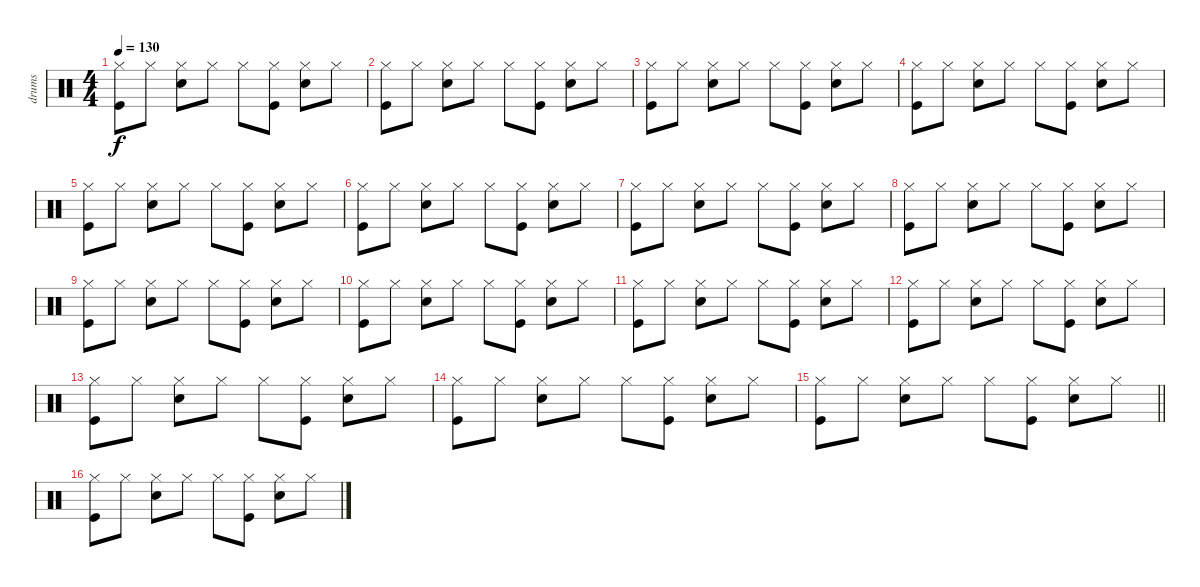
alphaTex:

\track ("drums" "drums") {instrument percussion}
\staff {score}
\articulation defaults
\ts (4 4)
\tempo 130
\clef neutral
\ks c
("Hi-Hat (closed)" "Kick (hit)").8{dy f} "Hi-Hat (closed)".8 ("Hi-Hat (closed)" "Snare (hit) 2").8 "Hi-Hat (closed)".8 "Hi-Hat (closed)".8 ("Hi-Hat (closed)" "Kick (hit)").8 ("Hi-Hat (closed)" "Snare (hit) 2").8 "Hi-Hat (closed)".8 |
("Hi-Hat (closed)" "Kick (hit)").8 "Hi-Hat (closed)".8 ("Hi-Hat (closed)" "Snare (hit) 2").8 "Hi-Hat (closed)".8 "Hi-Hat (closed)".8 ("Hi-Hat (closed)" "Kick (hit)").8 ("Hi-Hat (closed)" "Snare (hit) 2").8 "Hi-Hat (closed)".8 |
("Hi-Hat (closed)" "Kick (hit)").8 "Hi-Hat (closed)".8 ("Hi-Hat (closed)" "Snare (hit) 2").8 "Hi-Hat (closed)".8 "Hi-Hat (closed)".8 ("Hi-Hat (closed)" "Kick (hit)").8 ("Hi-Hat (closed)" "Snare (hit) 2").8 "Hi-Hat (closed)".8 |
("Hi-Hat (closed)" "Kick (hit)").8 "Hi-Hat (closed)".8 ("Hi-Hat (closed)" "Snare (hit) 2").8 "Hi-Hat (closed)".8 "Hi-Hat (closed)".8 ("Hi-Hat (closed)" "Kick (hit)").8 ("Hi-Hat (closed)" "Snare (hit) 2").8 "Hi-Hat (closed)".8 |
("Hi-Hat (closed)" "Kick (hit)").8 "Hi-Hat (closed)".8 ("Hi-Hat (closed)" "Snare (hit) 2").8 "Hi-Hat (closed)".8 "Hi-Hat (closed)".8 ("Hi-Hat (closed)" "Kick (hit)").8 ("Hi-Hat (closed)" "Snare (hit) 2").8 "Hi-Hat (closed)".8 |
("Hi-Hat (closed)" "Kick (hit)").8 "Hi-Hat (closed)".8 ("Hi-Hat (closed)" "Snare (hit) 2").8 "Hi-Hat (closed)".8 "Hi-Hat (closed)".8 ("Hi-Hat (closed)" "Kick (hit)").8 ("Hi-Hat (closed)" "Snare (hit) 2").8 "Hi-Hat (closed)".8 |
("Hi-Hat (closed)" "Kick (hit)").8 "Hi-Hat (closed)".8 ("Hi-Hat (closed)" "Snare (hit) 2").8 "Hi-Hat (closed)".8 "Hi-Hat (closed)".8 ("Hi-Hat (closed)" "Kick (hit)").8 ("Hi-Hat (closed)" "Snare (hit) 2").8 "Hi-Hat (closed)".8 |
("Hi-Hat (closed)" "Kick (hit)").8 "Hi-Hat (closed)".8 ("Hi-Hat (closed)" "Snare (hit) 2").8 "Hi-Hat (closed)".8 "Hi-Hat (closed)".8 ("Hi-Hat (closed)" "Kick (hit)").8 ("Hi-Hat (closed)" "Snare (hit) 2").8 "Hi-Hat (closed)".8 |
("Hi-Hat (closed)" "Kick (hit)").8 "Hi-Hat (closed)".8 ("Hi-Hat (closed)" "Snare (hit) 2").8 "Hi-Hat (closed)".8 "Hi-Hat (closed)".8 ("Hi-Hat (closed)" "Kick (hit)").8 ("Hi-Hat (closed)" "Snare (hit) 2").8 "Hi-Hat (closed)".8 |
("Hi-Hat (closed)" "Kick (hit)").8 "Hi-Hat (closed)".8 ("Hi-Hat (closed)" "Snare (hit) 2").8 "Hi-Hat (closed)".8 "Hi-Hat (closed)".8 ("Hi-Hat (closed)" "Kick (hit)").8 ("Hi-Hat (closed)" "Snare (hit) 2").8 "Hi-Hat (closed)".8 |
("Hi-Hat (closed)" "Kick (hit)").8 "Hi-Hat (closed)".8 ("Hi-Hat (closed)" "Snare (hit) 2").8 "Hi-Hat (closed)".8 "Hi-Hat (closed)".8 ("Hi-Hat (closed)" "Kick (hit)").8 ("Hi-Hat (closed)" "Snare (hit) 2").8 "Hi-Hat (closed)".8 |
("Hi-Hat (closed)" "Kick (hit)").8 "Hi-Hat (closed)".8 ("Hi-Hat (closed)" "Snare (hit) 2").8 "Hi-Hat (closed)".8 "Hi-Hat (closed)".8 ("Hi-Hat (closed)" "Kick (hit)").8 ("Hi-Hat (closed)" "Snare (hit) 2").8 "Hi-Hat (closed)".8 |
("Hi-Hat (closed)" "Kick (hit)").8 "Hi-Hat (closed)".8 ("Hi-Hat (closed)" "Snare (hit) 2").8 "Hi-Hat (closed)".8 "Hi-Hat (closed)".8 ("Hi-Hat (closed)" "Kick (hit)").8 ("Hi-Hat (closed)" "Snare (hit) 2").8 "Hi-Hat (closed)".8 |
("Hi-Hat (closed)" "Kick (hit)").8 "Hi-Hat (closed)".8 ("Hi-Hat (closed)" "Snare (hit) 2").8 "Hi-Hat (closed)".8 "Hi-Hat (closed)".8 ("Hi-Hat (closed)" "Kick (hit)").8 ("Hi-Hat (closed)" "Snare (hit) 2").8 "Hi-Hat (closed)".8 |
\barLineRight lightlight
("Hi-Hat (closed)" "Kick (hit)").8 "Hi-Hat (closed)".8 ("Hi-Hat (closed)" "Snare (hit) 2").8 "Hi-Hat (closed)".8 "Hi-Hat (closed)".8 ("Hi-Hat (closed)" "Kick (hit)").8 ("Hi-Hat (closed)" "Snare (hit) 2").8 "Hi-Hat (closed)".8 |
("Hi-Hat (closed)" "Kick (hit)").8 "Hi-Hat (closed)".8 ("Hi-Hat (closed)" "Snare (hit) 2").8 "Hi-Hat (closed)".8 "Hi-Hat (closed)".8 ("Hi-Hat (closed)" "Kick (hit)").8 ("Hi-Hat (closed)" "Snare (hit) 2").8 "Hi-Hat (closed)".8
